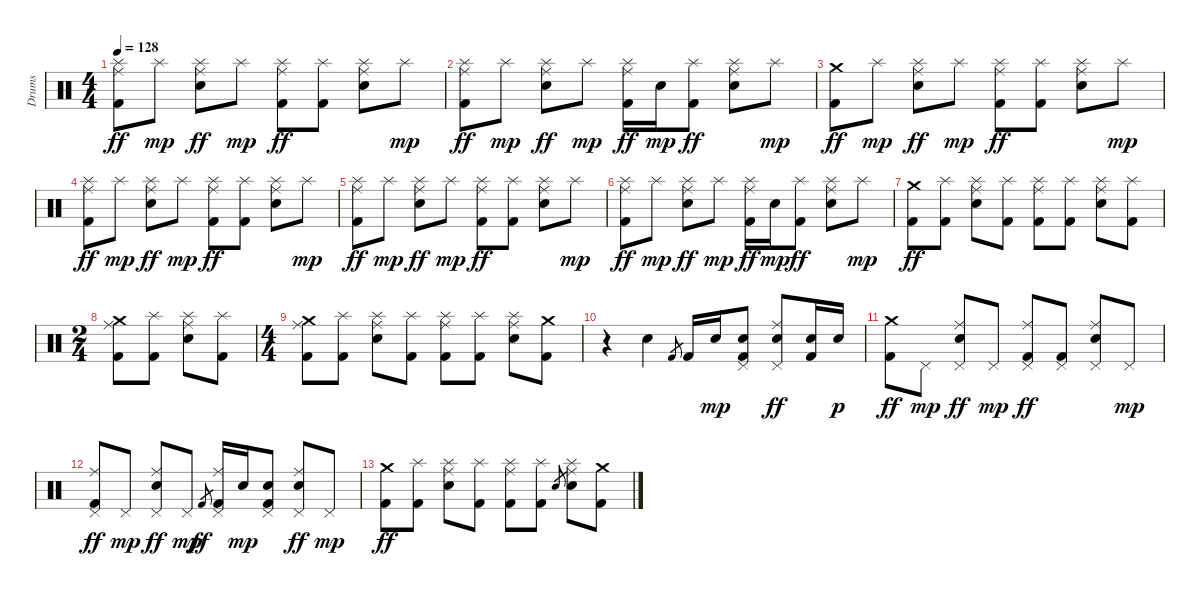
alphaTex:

\track ("Drums" "Drums") {instrument percussion}
\staff {score}
\articulation defaults
\ts (4 4)
\tempo 128
\clef neutral
\ks c
("Ride (middle)" "Splash (hit)" "Kick (hit) 2").8{dy ff} "Splash (hit)".8{dy mp} ("Ride (middle)" "Splash (hit)" "Electric Snare (hit)").8{dy ff} "Splash (hit)".8{dy mp} ("Ride (middle)" "Splash (hit)" "Kick (hit) 2").8{dy ff} ("Splash (hit)" "Kick (hit) 2").8 ("Ride (middle)" "Splash (hit)" "Electric Snare (hit)").8 "Splash (hit)".8{dy mp} |
("Ride (middle)" "Splash (hit)" "Kick (hit) 2").8{dy ff} "Splash (hit)".8{dy mp} ("Ride (middle)" "Splash (hit)" "Electric Snare (hit)").8{dy ff} "Splash (hit)".8{dy mp} ("Ride (middle)" "Splash (hit)" "Kick (hit) 2").16{dy ff} "Electric Snare (hit)".16{dy mp} ("Splash (hit)" "Kick (hit) 2").8{dy ff} ("Ride (middle)" "Splash (hit)" "Electric Snare (hit)").8 "Splash (hit)".8{dy mp} |
("Crash medium (hit)" "Kick (hit) 2").8{dy ff} "Splash (hit)".8{dy mp} ("Ride (middle)" "Splash (hit)" "Electric Snare (hit)").8{dy ff} "Splash (hit)".8{dy mp} ("Ride (middle)" "Splash (hit)" "Kick (hit) 2").8{dy ff} ("Splash (hit)" "Kick (hit) 2").8 ("Ride (middle)" "Splash (hit)" "Electric Snare (hit)").8 "Splash (hit)".8{dy mp} |
("Ride (middle)" "Splash (hit)" "Kick (hit) 2").8{dy ff} "Splash (hit)".8{dy mp} ("Ride (middle)" "Splash (hit)" "Electric Snare (hit)").8{dy ff} "Splash (hit)".8{dy mp} ("Ride (middle)" "Splash (hit)" "Kick (hit) 2").8{dy ff} ("Splash (hit)" "Kick (hit) 2").8 ("Ride (middle)" "Splash (hit)" "Electric Snare (hit)").8 "Splash (hit)".8{dy mp} |
("Ride (middle)" "Splash (hit)" "Kick (hit) 2").8{dy ff} "Splash (hit)".8{dy mp} ("Ride (middle)" "Splash (hit)" "Electric Snare (hit)").8{dy ff} "Splash (hit)".8{dy mp} ("Ride (middle)" "Splash (hit)" "Kick (hit) 2").8{dy ff} ("Splash (hit)" "Kick (hit) 2").8 ("Ride (middle)" "Splash (hit)" "Electric Snare (hit)").8 "Splash (hit)".8{dy mp} |
("Ride (middle)" "Splash (hit)" "Kick (hit) 2").8{dy ff} "Splash (hit)".8{dy mp} ("Ride (middle)" "Splash (hit)" "Electric Snare (hit)").8{dy ff} "Splash (hit)".8{dy mp} ("Ride (middle)" "Splash (hit)" "Kick (hit) 2").16{dy ff} "Electric Snare (hit)".16{dy mp} ("Splash (hit)" "Kick (hit) 2").8{dy ff} ("Ride (middle)" "Splash (hit)" "Electric Snare (hit)").8 "Splash (hit)".8{dy mp} |
("Crash medium (hit)" "Kick (hit) 2").8{dy ff} ("Splash (hit)" "Kick (hit) 2").8 ("Ride (middle)" "Splash (hit)" "Electric Snare (hit)").8 ("Splash (hit)" "Kick (hit) 2").8 ("Ride (middle)" "Splash (hit)" "Kick (hit) 2").8 ("Splash (hit)" "Kick (hit) 2").8 ("Ride (middle)" "Splash (hit)" "Electric Snare (hit)").8 ("Splash (hit)" "Kick (hit) 2").8 |
\ts (2 4)
("Ride (middle)" "Crash medium (hit)" "Kick (hit) 2").8 ("Splash (hit)" "Kick (hit) 2").8 ("Ride (middle)" "Splash (hit)" "Electric Snare (hit)").8 ("Splash (hit)" "Kick (hit) 2").8 |
\ts (4 4)
("Ride (middle)" "Crash medium (hit)" "Kick (hit) 2").8 ("Splash (hit)" "Kick (hit) 2").8 ("Ride (middle)" "Splash (hit)" "Electric Snare (hit)").8 ("Splash (hit)" "Kick (hit) 2").8 ("Ride (middle)" "Splash (hit)" "Kick (hit) 2").8 ("Splash (hit)" "Kick (hit) 2").8 ("Ride (middle)" "Splash (hit)" "Electric Snare (hit)").8 ("Crash medium (hit)" "Kick (hit) 2").8 |
r.4 "Electric Snare (hit)".4 "Kick (hit) 2".8{gr} "Kick (hit) 2".16 "Electric Snare (hit)".16{dy mp} ("Pedal Hi-Hat (hit)" "Electric Snare (hit)" "Kick (hit) 2").8 ("Ride (middle)" "Pedal Hi-Hat (hit)" "Electric Snare (hit)").8{dy ff} ("Electric Snare (hit)" "Kick (hit) 2").16 "Electric Snare (hit)".16{dy p} |
("Crash medium (hit)" "Kick (hit) 2").8{dy ff} "Pedal Hi-Hat (hit)".8{dy mp} ("Ride (middle)" "Pedal Hi-Hat (hit)" "Electric Snare (hit)").8{dy ff} "Pedal Hi-Hat (hit)".8{dy mp} ("Ride (middle)" "Pedal Hi-Hat (hit)" "Kick (hit) 2").8{dy ff} ("Pedal Hi-Hat (hit)" "Kick (hit) 2").8 ("Ride (middle)" "Pedal Hi-Hat (hit)" "Electric Snare (hit)").8 "Pedal Hi-Hat (hit)".8{dy mp} |
("Ride (middle)" "Pedal Hi-Hat (hit)" "Kick (hit) 2").8{dy ff} "Pedal Hi-Hat (hit)".8{dy mp} ("Ride (middle)" "Pedal Hi-Hat (hit)" "Electric Snare (hit)").8{dy ff} "Pedal Hi-Hat (hit)".8{dy mp} "Kick (hit) 2".8{gr dy ff} ("Ride (middle)" "Pedal Hi-Hat (hit)" "Kick (hit) 2").16 "Electric Snare (hit)".16{dy mp} ("Pedal Hi-Hat (hit)" "Electric Snare (hit)" "Kick (hit) 2").8 ("Ride (middle)" "Pedal Hi-Hat (hit)" "Electric Snare (hit)").8{dy ff} "Pedal Hi-Hat (hit)".8{dy mp} |
("Crash medium (hit)" "Kick (hit) 2").8{dy ff} ("Splash (hit)" "Kick (hit) 2").8 ("Ride (middle)" "Splash (hit)" "Electric Snare (hit)").8 ("Splash (hit)" "Kick (hit) 2").8 ("Ride (middle)" "Splash (hit)" "Kick (hit) 2").8 ("Splash (hit)" "Kick (hit) 2").8 "Electric Snare (hit)".8{gr} ("Ride (middle)" "Splash (hit)" "Electric Snare (hit)").8 ("Crash medium (hit)" "Kick (hit) 2").8
